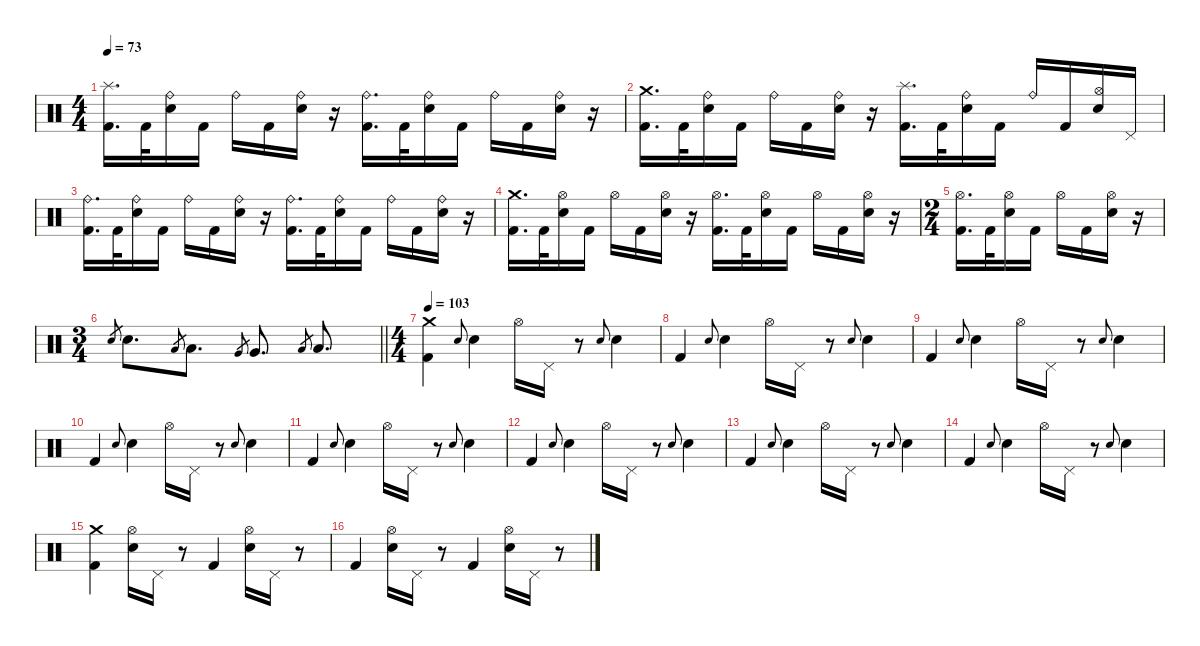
\defaultSystemsLayout 4
\hideDynamics
\bracketExtendMode nobrackets
\singleTrackTrackNamePolicy hidden
\multiTrackTrackNamePolicy hidden
\firstSystemTrackNameMode fullname
\otherSystemsTrackNameOrientation horizontal
\track ("Percussions" "drm.") {defaultSystemsLayout 4 instrument percussion}
\staff {score}
\articulation defaults
\ts (4 4)
\tempo 73
\clef neutral
\ks c
("Splash (hit)" "Kick (hit) 2").16{d dy ff beam Down} "Kick (hit) 2".32{dy fff beam Down} ("Ride (bell)" "Snare (hit) 2").16{dy ff beam Down} "Kick (hit) 2".16{dy fff beam Down} "Ride (bell)".16{dy ff beam Down} "Kick (hit) 2".16{dy fff beam Down} ("Ride (bell)" "Snare (hit) 2").16{dy ff beam Down} r.16{beam Down} ("Ride (bell)" "Kick (hit) 2").16{d beam Down} "Kick (hit) 2".32{dy fff beam Down} ("Ride (bell)" "Snare (hit) 2").16{dy ff beam Down} "Kick (hit) 2".16{dy fff beam Down} "Ride (bell)".16{dy ff beam Down} "Kick (hit) 2".16{dy fff beam Down} ("Ride (bell)" "Snare (hit) 2").16{dy ff beam Down} r.16{beam Down} |
("Crash medium (hit)" "Kick (hit) 2").16{d beam Down} "Kick (hit) 2".32{dy fff beam Down} ("Ride (bell)" "Snare (hit) 2").16{dy ff beam Down} "Kick (hit) 2".16{dy fff beam Down} "Ride (bell)".16{dy ff beam Down} "Kick (hit) 2".16{dy fff beam Down} ("Ride (bell)" "Snare (hit) 2").16{dy ff beam Down} r.16{beam Down} ("Splash (hit)" "Kick (hit) 2").16{d beam Down} "Kick (hit) 2".32{dy fff beam Down} ("Ride (bell)" "Snare (hit) 2").16{dy ff beam Down} "Kick (hit) 2".16{dy fff beam Down} "Ride (bell)".16{dy ff beam Up} "Kick (hit) 2".16{dy fff beam Up} ("Hi-Hat (open)" "Snare (hit) 2").16{dy ff beam Up} "Pedal Hi-Hat (hit)".16{dy f beam Up} |
("Ride (bell)" "Kick (hit) 2").16{d dy ff beam Down} "Kick (hit) 2".32{dy fff beam Down} ("Ride (bell)" "Snare (hit) 2").16{dy ff beam Down} "Kick (hit) 2".16{dy fff beam Down} "Ride (bell)".16{dy ff beam Down} "Kick (hit) 2".16{dy fff beam Down} ("Ride (bell)" "Snare (hit) 2").16{dy ff beam Down} r.16{beam Down} ("Ride (bell)" "Kick (hit) 2").16{d beam Down} "Kick (hit) 2".32{dy fff beam Down} ("Ride (bell)" "Snare (hit) 2").16{dy ff beam Down} "Kick (hit) 2".16{dy fff beam Down} "Ride (bell)".16{dy ff beam Down} "Kick (hit) 2".16{dy fff beam Down} ("Ride (bell)" "Snare (hit) 2").16{dy ff beam Down} r.16{beam Down} |
("Crash medium (hit)" "Kick (hit) 2").16{d dy f beam Down} "Kick (hit) 2".32{dy fff beam Down} ("Hi-Hat (open)" "Snare (hit) 2").16{dy f beam Down} "Kick (hit) 2".16{dy fff beam Down} "Hi-Hat (open)".16{dy f beam Down} "Kick (hit) 2".16{dy fff beam Down} ("Hi-Hat (open)" "Snare (hit) 2").16{dy f beam Down} r.16{beam Down} ("Hi-Hat (open)" "Kick (hit) 2").16{d beam Down} "Kick (hit) 2".32{dy fff beam Down} ("Hi-Hat (open)" "Snare (hit) 2").16{dy f beam Down} "Kick (hit) 2".16{dy fff beam Down} "Hi-Hat (open)".16{dy f beam Down} "Kick (hit) 2".16{dy fff beam Down} ("Hi-Hat (open)" "Snare (hit) 2").16{dy f beam Down} r.16{beam Down} |
\ts (2 4)
("Hi-Hat (open)" "Kick (hit) 2").16{d beam Down} "Kick (hit) 2".32{dy fff beam Down} ("Hi-Hat (open)" "Snare (hit) 2").16{dy f beam Down} "Kick (hit) 2".16{dy fff beam Down} "Hi-Hat (open)".16{dy f beam Down} "Kick (hit) 2".16{dy fff beam Down} ("Hi-Hat (open)" "Snare (hit) 2").16{dy f beam Down} r.16{beam Down} |
\ts (3 4)
\barLineRight lightlight "Electric Snare (hit)".8{gr dy ff beam Up} "Snare (hit) 2".8{d dy fff beam Down} "Low Tom (hit)".8{gr dy mf beam Up} "Low Tom (hit)".8{d dy f beam Down} "Very Low Tom (hit)".8{gr dy mf beam Up} "Very Low Tom (hit)".8{d dy f beam Up} "Low Floor Tom (hit)".8{gr dy mf beam Up} "Low Floor Tom (hit)".8{d dy f beam Up}
|
\ts (4 4)
\tempo 103
("Crash medium (hit)" "Kick (hit) 2").4{beam Down} "Electric Snare (hit)".8{gr onbeat dy ff beam Up} "Snare (hit) 2".4{dy fff beam Down} "Hi-Hat (open)".16{dy f beam Down} "Pedal Hi-Hat (hit)".16{beam Down} r.8{beam Down} "Electric Snare (hit)".8{gr onbeat dy ff beam Up} "Snare (hit) 2".4{dy fff beam Down} |
"Kick (hit) 2".4{beam Up} "Electric Snare (hit)".8{gr onbeat dy ff beam Up} "Snare (hit) 2".4{dy fff beam Down} "Hi-Hat (open)".16{dy f beam Down} "Pedal Hi-Hat (hit)".16{beam Down} r.8{beam Down} "Electric Snare (hit)".8{gr onbeat dy ff beam Up} "Snare (hit) 2".4{dy fff beam Down} |
"Kick (hit) 2".4{beam Up} "Electric Snare (hit)".8{gr onbeat dy ff beam Up} "Snare (hit) 2".4{dy fff beam Down} "Hi-Hat (open)".16{dy f beam Down} "Pedal Hi-Hat (hit)".16{beam Down} r.8{beam Down} "Electric Snare (hit)".8{gr onbeat dy ff beam Up} "Snare (hit) 2".4{dy fff beam Down} |
"Kick (hit) 2".4{beam Up} "Electric Snare (hit)".8{gr onbeat dy ff beam Up} "Snare (hit) 2".4{dy fff beam Down} "Hi-Hat (open)".16{dy f beam Down} "Pedal Hi-Hat (hit)".16{beam Down} r.8{beam Down} "Electric Snare (hit)".8{gr onbeat dy ff beam Up} "Snare (hit) 2".4{dy fff beam Down} |
"Kick (hit) 2".4{beam Up} "Electric Snare (hit)".8{gr onbeat dy ff beam Up} "Snare (hit) 2".4{dy fff beam Down} "Hi-Hat (open)".16{dy f beam Down} "Pedal Hi-Hat (hit)".16{beam Down} r.8{beam Down} "Electric Snare (hit)".8{gr onbeat dy ff beam Up} "Snare (hit) 2".4{dy fff beam Down} |
"Kick (hit) 2".4{beam Up} "Electric Snare (hit)".8{gr onbeat dy ff beam Up} "Snare (hit) 2".4{dy fff beam Down} "Hi-Hat (open)".16{dy f beam Down} "Pedal Hi-Hat (hit)".16{beam Down} r.8{beam Down} "Electric Snare (hit)".8{gr onbeat dy ff beam Up} "Snare (hit) 2".4{dy fff beam Down} |
"Kick (hit) 2".4{beam Up} "Electric Snare (hit)".8{gr onbeat dy ff beam Up} "Snare (hit) 2".4{dy fff beam Down} "Hi-Hat (open)".16{dy f beam Down} "Pedal Hi-Hat (hit)".16{beam Down} r.8{beam Down} "Electric Snare (hit)".8{gr onbeat dy ff beam Up} "Snare (hit) 2".4{dy fff beam Down} |
"Kick (hit) 2".4{beam Up} "Electric Snare (hit)".8{gr onbeat dy ff beam Up} "Snare (hit) 2".4{dy fff beam Down} "Hi-Hat (open)".16{dy f beam Down} "Pedal Hi-Hat (hit)".16{beam Down} r.8{beam Down} "Electric Snare (hit)".8{gr onbeat dy ff beam Up} "Snare (hit) 2".4{dy fff beam Down} |
("Crash medium (hit)" "Kick (hit) 2").4{dy f beam Down} ("Hi-Hat (open)" "Snare (hit) 2").16{beam Down} "Pedal Hi-Hat (hit)".16{beam Down} r.8{beam Down} "Kick (hit) 2".4{dy fff beam Up} ("Hi-Hat (open)" "Snare (hit) 2").16{dy f beam Down} "Pedal Hi-Hat (hit)".16{beam Down} r.8{beam Down} |
"Kick (hit) 2".4{dy fff beam Up} ("Hi-Hat (open)" "Snare (hit) 2").16{dy f beam Down} "Pedal Hi-Hat (hit)".16{beam Down} r.8{beam Down} "Kick (hit) 2".4{dy fff beam Up} ("Hi-Hat (open)" "Snare (hit) 2").16{dy f beam Down} "Pedal Hi-Hat (hit)".16{beam Down} r.8{beam Down}
